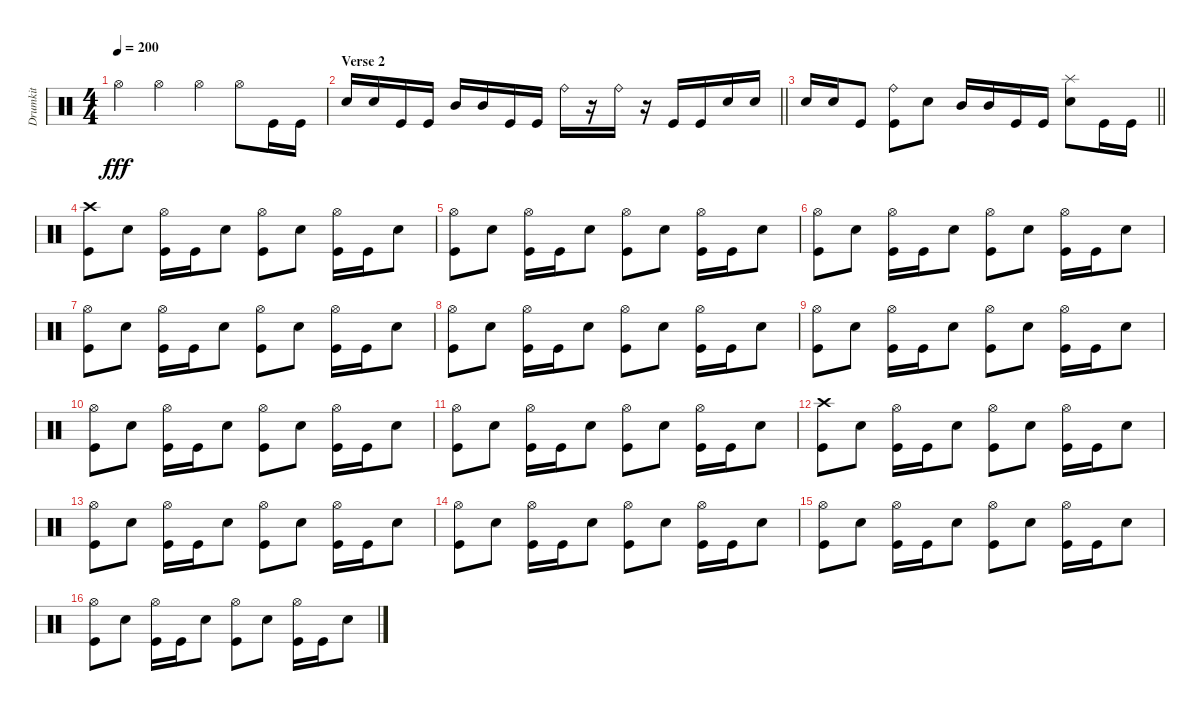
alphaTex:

\track ("Drumkit" "Drumkit") {instrument percussion}
\staff {score}
\articulation defaults
\ts (4 4)
\tempo 200
\clef neutral
\ks c "Hi-Hat (open)".4{dy fff} "Hi-Hat (open)".4 "Hi-Hat (open)".4 "Hi-Hat (open)".8 "Kick (hit)".16 "Kick (hit)".16
|
\section ("" "Verse 2")
\barLineRight lightlight "Snare (hit) 2".16 "Snare (hit) 2".16 "Kick (hit)".16 "Kick (hit)".16 "Mid Tom (hit)".16 "Mid Tom (hit)".16 "Kick (hit)".16 "Kick (hit)".16 "Ride (bell)".16
r.16 "Ride (bell)".16 r.16 "Kick (hit)".16 "Kick (hit)".16 "Snare (hit) 2".16 "Snare (hit) 2".16 |
\barLineRight lightlight "Snare (hit) 2".16 "Snare (hit) 2".16 "Kick (hit)".8
("Kick (hit)" "Ride (bell)").8 "Snare (hit) 2".8 "Mid Tom (hit)".16 "Mid Tom (hit)".16 "Kick (hit)".16 "Kick (hit)".16 ("Snare (hit) 2" "Splash (hit)").8 "Kick (hit)".16 "Kick (hit)".16 |
("Kick (hit)" "Crash high (hit)").8 "Snare (hit) 2".8 ("Kick (hit)" "Hi-Hat (open)").16 "Kick (hit)".16 "Snare (hit) 2".8 ("Kick (hit)" "Hi-Hat (open)").8 "Snare (hit) 2".8 ("Kick (hit)" "Hi-Hat (open)").16 "Kick (hit)".16 "Snare (hit) 2".8 |
("Kick (hit)" "Hi-Hat (open)").8 "Snare (hit) 2".8 ("Kick (hit)" "Hi-Hat (open)").16 "Kick (hit)".16 "Snare (hit) 2".8 ("Kick (hit)" "Hi-Hat (open)").8 "Snare (hit) 2".8 ("Kick (hit)" "Hi-Hat (open)").16 "Kick (hit)".16 "Snare (hit) 2".8 |
("Kick (hit)" "Hi-Hat (open)").8 "Snare (hit) 2".8 ("Kick (hit)" "Hi-Hat (open)").16 "Kick (hit)".16 "Snare (hit) 2".8 ("Kick (hit)" "Hi-Hat (open)").8 "Snare (hit) 2".8 ("Kick (hit)" "Hi-Hat (open)").16 "Kick (hit)".16 "Snare (hit) 2".8 |
("Kick (hit)" "Hi-Hat (open)").8 "Snare (hit) 2".8 ("Kick (hit)" "Hi-Hat (open)").16 "Kick (hit)".16 "Snare (hit) 2".8 ("Kick (hit)" "Hi-Hat (open)").8 "Snare (hit) 2".8 ("Kick (hit)" "Hi-Hat (open)").16 "Kick (hit)".16 "Snare (hit) 2".8 |
("Kick (hit)" "Hi-Hat (open)").8 "Snare (hit) 2".8 ("Kick (hit)" "Hi-Hat (open)").16 "Kick (hit)".16 "Snare (hit) 2".8 ("Kick (hit)" "Hi-Hat (open)").8 "Snare (hit) 2".8 ("Kick (hit)" "Hi-Hat (open)").16 "Kick (hit)".16 "Snare (hit) 2".8 |
("Kick (hit)" "Hi-Hat (open)").8 "Snare (hit) 2".8 ("Kick (hit)" "Hi-Hat (open)").16 "Kick (hit)".16 "Snare (hit) 2".8 ("Kick (hit)" "Hi-Hat (open)").8 "Snare (hit) 2".8 ("Kick (hit)" "Hi-Hat (open)").16 "Kick (hit)".16 "Snare (hit) 2".8 |
("Kick (hit)" "Hi-Hat (open)").8 "Snare (hit) 2".8 ("Kick (hit)" "Hi-Hat (open)").16 "Kick (hit)".16 "Snare (hit) 2".8 ("Kick (hit)" "Hi-Hat (open)").8 "Snare (hit) 2".8 ("Kick (hit)" "Hi-Hat (open)").16 "Kick (hit)".16 "Snare (hit) 2".8 |
("Kick (hit)" "Hi-Hat (open)").8 "Snare (hit) 2".8 ("Kick (hit)" "Hi-Hat (open)").16 "Kick (hit)".16 "Snare (hit) 2".8 ("Kick (hit)" "Hi-Hat (open)").8 "Snare (hit) 2".8 ("Kick (hit)" "Hi-Hat (open)").16 "Kick (hit)".16 "Snare (hit) 2".8 |
("Kick (hit)" "Crash high (hit)").8 "Snare (hit) 2".8 ("Kick (hit)" "Hi-Hat (open)").16 "Kick (hit)".16 "Snare (hit) 2".8 ("Kick (hit)" "Hi-Hat (open)").8 "Snare (hit) 2".8 ("Kick (hit)" "Hi-Hat (open)").16 "Kick (hit)".16 "Snare (hit) 2".8 |
("Kick (hit)" "Hi-Hat (open)").8 "Snare (hit) 2".8 ("Kick (hit)" "Hi-Hat (open)").16 "Kick (hit)".16 "Snare (hit) 2".8 ("Kick (hit)" "Hi-Hat (open)").8 "Snare (hit) 2".8 ("Kick (hit)" "Hi-Hat (open)").16 "Kick (hit)".16 "Snare (hit) 2".8 |
("Kick (hit)" "Hi-Hat (open)").8 "Snare (hit) 2".8 ("Kick (hit)" "Hi-Hat (open)").16 "Kick (hit)".16 "Snare (hit) 2".8 ("Kick (hit)" "Hi-Hat (open)").8 "Snare (hit) 2".8 ("Kick (hit)" "Hi-Hat (open)").16 "Kick (hit)".16 "Snare (hit) 2".8 |
("Kick (hit)" "Hi-Hat (open)").8 "Snare (hit) 2".8 ("Kick (hit)" "Hi-Hat (open)").16 "Kick (hit)".16 "Snare (hit) 2".8 ("Kick (hit)" "Hi-Hat (open)").8 "Snare (hit) 2".8 ("Kick (hit)" "Hi-Hat (open)").16 "Kick (hit)".16 "Snare (hit) 2".8 |
("Kick (hit)" "Hi-Hat (open)").8 "Snare (hit) 2".8 ("Kick (hit)" "Hi-Hat (open)").16 "Kick (hit)".16 "Snare (hit) 2".8 ("Kick (hit)" "Hi-Hat (open)").8 "Snare (hit) 2".8 ("Kick (hit)" "Hi-Hat (open)").16 "Kick (hit)".16 "Snare (hit) 2".8
